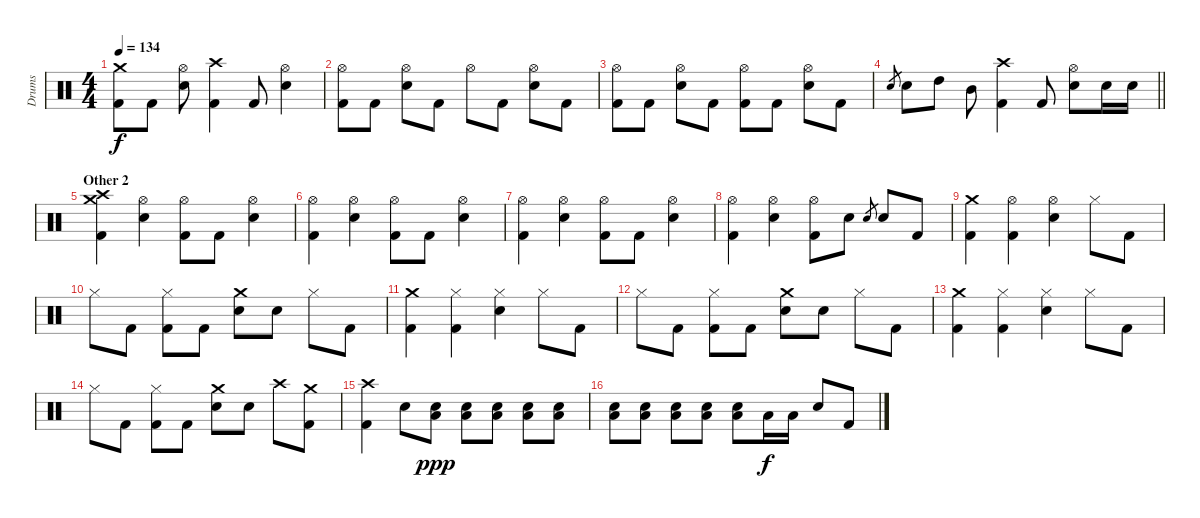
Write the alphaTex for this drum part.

\track ("Drums" "Drums") {instrument percussion}
\staff {score}
\articulation defaults
\ts (4 4)
\tempo 134
\clef neutral
\ks c
("Crash medium (hit)" "Kick (hit) 2").8{dy f} "Kick (hit) 2".8 ("Hi-Hat (open)" "Snare (hit) 2").8 ("Crash high (hit)" "Kick (hit) 2").4 "Kick (hit) 2".8 ("Hi-Hat (open)" "Snare (hit) 2").4 |
("Hi-Hat (open)" "Kick (hit) 2").8 "Kick (hit) 2".8 ("Hi-Hat (open)" "Snare (hit) 2").8 "Kick (hit) 2".8 "Hi-Hat (open)".8 "Kick (hit) 2".8 ("Hi-Hat (open)" "Snare (hit) 2").8 "Kick (hit) 2".8 |
("Hi-Hat (open)" "Kick (hit) 2").8 "Kick (hit) 2".8 ("Hi-Hat (open)" "Snare (hit) 2").8 "Kick (hit) 2".8 ("Hi-Hat (open)" "Kick (hit) 2").8 "Kick (hit) 2".8 ("Hi-Hat (open)" "Snare (hit) 2").8 "Kick (hit) 2".8 |
\barLineRight lightlight "Snare (hit) 2".8{gr} "Snare (hit) 2".8 "High Tom (hit)".8 "Mid Tom (hit)".8
("Crash high (hit)" "Kick (hit) 2").4 "Kick (hit) 2".8 ("Hi-Hat (open)" "Snare (hit) 2").8 "Snare (hit) 2".16 "Snare (hit) 2".16 |
\section ("" "Other 2")
("Crash medium (hit)" "Crash high (hit)" "Kick (hit) 2").4 ("Hi-Hat (open)" "Snare (hit) 2").4 ("Hi-Hat (open)" "Kick (hit) 2").8 "Kick (hit) 2".8 ("Hi-Hat (open)" "Snare (hit) 2").4 |
("Hi-Hat (open)" "Kick (hit) 2").4 ("Hi-Hat (open)" "Snare (hit) 2").4 ("Hi-Hat (open)" "Kick (hit) 2").8 "Kick (hit) 2".8 ("Hi-Hat (open)" "Snare (hit) 2").4 |
("Hi-Hat (open)" "Kick (hit) 2").4 ("Hi-Hat (open)" "Snare (hit) 2").4 ("Hi-Hat (open)" "Kick (hit) 2").8 "Kick (hit) 2".8 ("Hi-Hat (open)" "Snare (hit) 2").4 |
("Hi-Hat (open)" "Kick (hit) 2").4 ("Hi-Hat (open)" "Snare (hit) 2").4 ("Hi-Hat (open)" "Kick (hit) 2").8 "Snare (hit) 2".8 "Snare (hit) 2".8{gr} "Snare (hit) 2".8 "Kick (hit) 2".8 |
("Crash medium (hit)" "Kick (hit) 2").4 ("Hi-Hat (open)" "Kick (hit) 2").4 ("Hi-Hat (open)" "Snare (hit) 2").4 "Hi-Hat (closed)".8 "Kick (hit) 2".8 |
"Hi-Hat (closed)".8 "Kick (hit) 2".8 ("Hi-Hat (closed)" "Kick (hit) 2").8 "Kick (hit) 2".8 ("Crash medium (hit)" "Snare (hit) 2").8 "Snare (hit) 2".8 "Hi-Hat (closed)".8 "Kick (hit) 2".8 |
("Crash medium (hit)" "Kick (hit) 2").4 ("Hi-Hat (closed)" "Kick (hit) 2").4 ("Hi-Hat (closed)" "Snare (hit) 2").4 "Hi-Hat (closed)".8 "Kick (hit) 2".8 |
"Hi-Hat (closed)".8 "Kick (hit) 2".8 ("Hi-Hat (closed)" "Kick (hit) 2").8 "Kick (hit) 2".8 ("Crash medium (hit)" "Snare (hit) 2").8 "Snare (hit) 2".8 "Hi-Hat (closed)".8 "Kick (hit) 2".8 |
("Crash medium (hit)" "Kick (hit) 2").4 ("Hi-Hat (closed)" "Kick (hit) 2").4 ("Hi-Hat (closed)" "Snare (hit) 2").4 "Hi-Hat (closed)".8 "Kick (hit) 2".8 |
"Hi-Hat (closed)".8 "Kick (hit) 2".8 ("Hi-Hat (closed)" "Kick (hit) 2").8 "Kick (hit) 2".8 ("Crash medium (hit)" "Snare (hit) 2").8 "Snare (hit) 2".8 "Crash high (hit)".8 ("Crash medium (hit)" "Kick (hit) 2").8 |
("Crash high (hit)" "Kick (hit) 2").4 "Snare (hit) 2".8 ("Snare (hit) 2" "Low Tom (hit)").8{dy ppp} ("Snare (hit) 2" "Low Tom (hit)").8 ("Snare (hit) 2" "Low Tom (hit)").8 ("Snare (hit) 2" "Low Tom (hit)").8 ("Snare (hit) 2" "Low Tom (hit)").8 |
("Snare (hit) 2" "Low Tom (hit)").8 ("Snare (hit) 2" "Low Tom (hit)").8 ("Snare (hit) 2" "Low Tom (hit)").8 ("Snare (hit) 2" "Low Tom (hit)").8 ("Snare (hit) 2" "Low Tom (hit)").8 "Low Floor Tom (hit)".16{dy f} "Low Floor Tom (hit)".16 "Snare (hit) 2".8 "Kick (hit) 2".8
